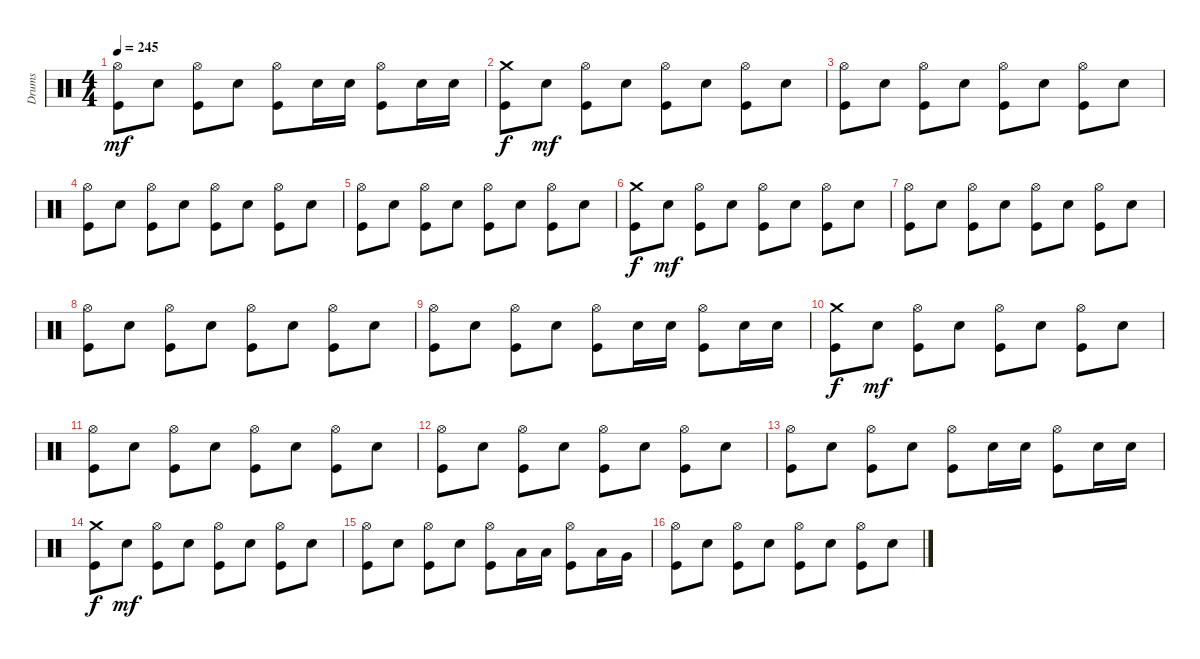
\track ("Drums" "Drums") {instrument percussion}
\staff {score}
\articulation defaults
\ts (4 4)
\tempo 245
\clef neutral
\ks c
("Hi-Hat (open)" "Kick (hit)").8{dy mf} "Snare (hit) 2".8 ("Hi-Hat (open)" "Kick (hit)").8 "Snare (hit) 2".8 ("Hi-Hat (open)" "Kick (hit)").8 "Snare (hit) 2".16 "Snare (hit) 2".16 ("Hi-Hat (open)" "Kick (hit)").8 "Snare (hit) 2".16 "Snare (hit) 2".16 |
("Crash medium (hit)" "Kick (hit)").8{dy f} "Snare (hit) 2".8{dy mf} ("Hi-Hat (open)" "Kick (hit)").8 "Snare (hit) 2".8 ("Hi-Hat (open)" "Kick (hit)").8 "Snare (hit) 2".8 ("Hi-Hat (open)" "Kick (hit)").8 "Snare (hit) 2".8 |
("Hi-Hat (open)" "Kick (hit)").8 "Snare (hit) 2".8 ("Hi-Hat (open)" "Kick (hit)").8 "Snare (hit) 2".8 ("Hi-Hat (open)" "Kick (hit)").8 "Snare (hit) 2".8 ("Hi-Hat (open)" "Kick (hit)").8 "Snare (hit) 2".8 |
("Hi-Hat (open)" "Kick (hit)").8 "Snare (hit) 2".8 ("Hi-Hat (open)" "Kick (hit)").8 "Snare (hit) 2".8 ("Hi-Hat (open)" "Kick (hit)").8 "Snare (hit) 2".8 ("Hi-Hat (open)" "Kick (hit)").8 "Snare (hit) 2".8 |
("Hi-Hat (open)" "Kick (hit)").8 "Snare (hit) 2".8 ("Hi-Hat (open)" "Kick (hit)").8 "Snare (hit) 2".8 ("Hi-Hat (open)" "Kick (hit)").8 "Snare (hit) 2".8 ("Hi-Hat (open)" "Kick (hit)").8 "Snare (hit) 2".8 |
("Crash medium (hit)" "Kick (hit)").8{dy f} "Snare (hit) 2".8{dy mf} ("Hi-Hat (open)" "Kick (hit)").8 "Snare (hit) 2".8 ("Hi-Hat (open)" "Kick (hit)").8 "Snare (hit) 2".8 ("Hi-Hat (open)" "Kick (hit)").8 "Snare (hit) 2".8 |
("Hi-Hat (open)" "Kick (hit)").8 "Snare (hit) 2".8 ("Hi-Hat (open)" "Kick (hit)").8 "Snare (hit) 2".8 ("Hi-Hat (open)" "Kick (hit)").8 "Snare (hit) 2".8 ("Hi-Hat (open)" "Kick (hit)").8 "Snare (hit) 2".8 |
("Hi-Hat (open)" "Kick (hit)").8 "Snare (hit) 2".8 ("Hi-Hat (open)" "Kick (hit)").8 "Snare (hit) 2".8 ("Hi-Hat (open)" "Kick (hit)").8 "Snare (hit) 2".8 ("Hi-Hat (open)" "Kick (hit)").8 "Snare (hit) 2".8 |
("Hi-Hat (open)" "Kick (hit)").8 "Snare (hit) 2".8 ("Hi-Hat (open)" "Kick (hit)").8 "Snare (hit) 2".8 ("Hi-Hat (open)" "Kick (hit)").8 "Snare (hit) 2".16 "Snare (hit) 2".16 ("Hi-Hat (open)" "Kick (hit)").8 "Snare (hit) 2".16 "Snare (hit) 2".16 |
("Crash medium (hit)" "Kick (hit)").8{dy f} "Snare (hit) 2".8{dy mf} ("Hi-Hat (open)" "Kick (hit)").8 "Snare (hit) 2".8 ("Hi-Hat (open)" "Kick (hit)").8 "Snare (hit) 2".8 ("Hi-Hat (open)" "Kick (hit)").8 "Snare (hit) 2".8 |
("Hi-Hat (open)" "Kick (hit)").8 "Snare (hit) 2".8 ("Hi-Hat (open)" "Kick (hit)").8 "Snare (hit) 2".8 ("Hi-Hat (open)" "Kick (hit)").8 "Snare (hit) 2".8 ("Hi-Hat (open)" "Kick (hit)").8 "Snare (hit) 2".8 |
("Hi-Hat (open)" "Kick (hit)").8 "Snare (hit) 2".8 ("Hi-Hat (open)" "Kick (hit)").8 "Snare (hit) 2".8 ("Hi-Hat (open)" "Kick (hit)").8 "Snare (hit) 2".8 ("Hi-Hat (open)" "Kick (hit)").8 "Snare (hit) 2".8 |
("Hi-Hat (open)" "Kick (hit)").8 "Snare (hit) 2".8 ("Hi-Hat (open)" "Kick (hit)").8 "Snare (hit) 2".8 ("Hi-Hat (open)" "Kick (hit)").8 "Snare (hit) 2".16 "Snare (hit) 2".16 ("Hi-Hat (open)" "Kick (hit)").8 "Snare (hit) 2".16 "Snare (hit) 2".16 |
("Crash medium (hit)" "Kick (hit)").8{dy f} "Snare (hit) 2".8{dy mf} ("Hi-Hat (open)" "Kick (hit)").8 "Snare (hit) 2".8 ("Hi-Hat (open)" "Kick (hit)").8 "Snare (hit) 2".8 ("Hi-Hat (open)" "Kick (hit)").8 "Snare (hit) 2".8 |
("Hi-Hat (open)" "Kick (hit)").8 "Snare (hit) 2".8 ("Hi-Hat (open)" "Kick (hit)").8 "Snare (hit) 2".8 ("Hi-Hat (open)" "Kick (hit)").8 "Low Tom (hit)".16 "Low Tom (hit)".16 ("Hi-Hat (open)" "Kick (hit)").8 "Low Tom (hit)".16 "Very Low Tom (hit)".16 |
("Hi-Hat (open)" "Kick (hit)").8 "Snare (hit) 2".8 ("Hi-Hat (open)" "Kick (hit)").8 "Snare (hit) 2".8 ("Hi-Hat (open)" "Kick (hit)").8 "Snare (hit) 2".8 ("Hi-Hat (open)" "Kick (hit)").8 "Snare (hit) 2".8
